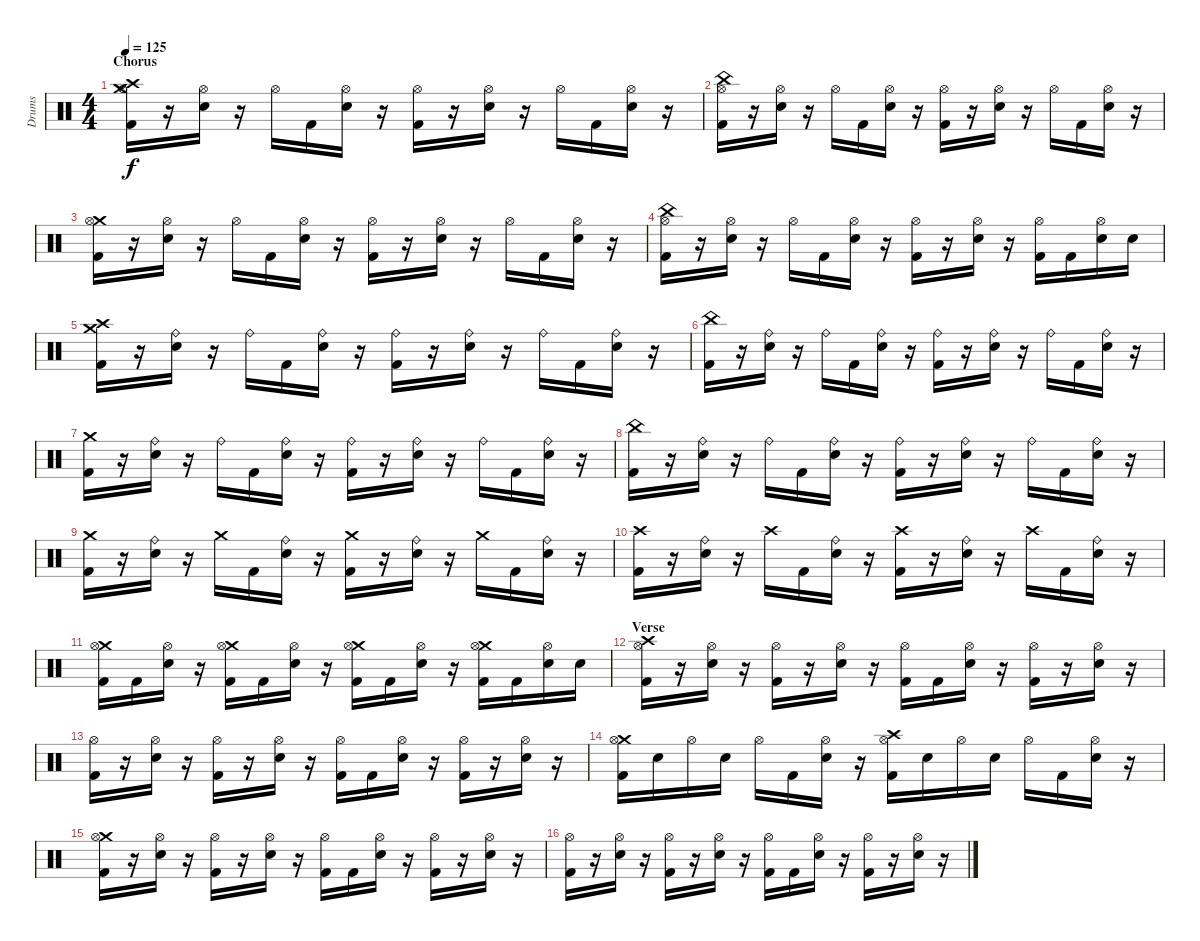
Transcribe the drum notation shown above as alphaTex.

\track ("Drums" "Drums") {instrument percussion}
\staff {score}
\articulation defaults
\ts (4 4)
\section ("" "Chorus")
\tempo 125
\clef neutral
\ks c
("Crash high (hit)" "Crash medium (hit)" "Hi-Hat (open)" "Kick (hit) 2").16{dy f} r.16 ("Hi-Hat (open)" "Electric Snare (hit)").16 r.16 "Hi-Hat (open)".16 "Kick (hit) 2".16 ("Hi-Hat (open)" "Electric Snare (hit)").16 r.16 ("Hi-Hat (open)" "Kick (hit) 2").16 r.16 ("Hi-Hat (open)" "Electric Snare (hit)").16 r.16 "Hi-Hat (open)".16 "Kick (hit) 2".16 ("Hi-Hat (open)" "Electric Snare (hit)").16 r.16 |
("China (hit)" "Hi-Hat (open)" "Kick (hit) 2").16 r.16 ("Hi-Hat (open)" "Electric Snare (hit)").16 r.16 "Hi-Hat (open)".16 "Kick (hit) 2".16 ("Hi-Hat (open)" "Electric Snare (hit)").16 r.16 ("Hi-Hat (open)" "Kick (hit) 2").16 r.16 ("Hi-Hat (open)" "Electric Snare (hit)").16 r.16 "Hi-Hat (open)".16 "Kick (hit) 2".16 ("Hi-Hat (open)" "Electric Snare (hit)").16 r.16 |
("Crash medium (hit)" "Hi-Hat (open)" "Kick (hit) 2").16 r.16 ("Hi-Hat (open)" "Electric Snare (hit)").16 r.16 "Hi-Hat (open)".16 "Kick (hit) 2".16 ("Hi-Hat (open)" "Electric Snare (hit)").16 r.16 ("Hi-Hat (open)" "Kick (hit) 2").16 r.16 ("Hi-Hat (open)" "Electric Snare (hit)").16 r.16 "Hi-Hat (open)".16 "Kick (hit) 2".16 ("Hi-Hat (open)" "Electric Snare (hit)").16 r.16 |
("China (hit)" "Hi-Hat (open)" "Kick (hit) 2").16 r.16 ("Hi-Hat (open)" "Electric Snare (hit)").16 r.16 "Hi-Hat (open)".16 "Kick (hit) 2".16 ("Hi-Hat (open)" "Electric Snare (hit)").16 r.16 ("Hi-Hat (open)" "Kick (hit) 2").16 r.16 ("Hi-Hat (open)" "Electric Snare (hit)").16 r.16 ("Hi-Hat (open)" "Kick (hit) 2").16 "Kick (hit) 2".16 ("Hi-Hat (open)" "Electric Snare (hit)").16 "Electric Snare (hit)".16 |
("Crash high (hit)" "Crash medium (hit)" "Kick (hit) 2").16 r.16 ("Ride (bell)" "Electric Snare (hit)").16 r.16 "Ride (bell)".16 "Kick (hit) 2".16 ("Ride (bell)" "Electric Snare (hit)").16 r.16 ("Ride (bell)" "Kick (hit) 2").16 r.16 ("Ride (bell)" "Electric Snare (hit)").16 r.16 "Ride (bell)".16 "Kick (hit) 2".16 ("Ride (bell)" "Electric Snare (hit)").16 r.16 |
("China (hit)" "Kick (hit) 2").16 r.16 ("Ride (bell)" "Electric Snare (hit)").16 r.16 "Ride (bell)".16 "Kick (hit) 2".16 ("Ride (bell)" "Electric Snare (hit)").16 r.16 ("Ride (bell)" "Kick (hit) 2").16 r.16 ("Ride (bell)" "Electric Snare (hit)").16 r.16 "Ride (bell)".16 "Kick (hit) 2".16 ("Ride (bell)" "Electric Snare (hit)").16 r.16 |
("Crash medium (hit)" "Kick (hit) 2").16 r.16 ("Ride (bell)" "Electric Snare (hit)").16 r.16 "Ride (bell)".16 "Kick (hit) 2".16 ("Ride (bell)" "Electric Snare (hit)").16 r.16 ("Ride (bell)" "Kick (hit) 2").16 r.16 ("Ride (bell)" "Electric Snare (hit)").16 r.16 "Ride (bell)".16 "Kick (hit) 2".16 ("Ride (bell)" "Electric Snare (hit)").16 r.16 |
("China (hit)" "Kick (hit) 2").16 r.16 ("Ride (bell)" "Electric Snare (hit)").16 r.16 "Ride (bell)".16 "Kick (hit) 2".16 ("Ride (bell)" "Electric Snare (hit)").16 r.16 ("Ride (bell)" "Kick (hit) 2").16 r.16 ("Ride (bell)" "Electric Snare (hit)").16 r.16 "Ride (bell)".16 "Kick (hit) 2".16 ("Ride (bell)" "Electric Snare (hit)").16 r.16 |
("Crash medium (hit)" "Kick (hit) 2").16 r.16 ("Ride (bell)" "Electric Snare (hit)").16 r.16 "Crash medium (hit)".16 "Kick (hit) 2".16 ("Ride (bell)" "Electric Snare (hit)").16 r.16 ("Crash medium (hit)" "Kick (hit) 2").16 r.16 ("Ride (bell)" "Electric Snare (hit)").16 r.16 "Crash medium (hit)".16 "Kick (hit) 2".16 ("Ride (bell)" "Electric Snare (hit)").16 r.16 |
("Crash high (hit)" "Kick (hit) 2").16 r.16 ("Ride (bell)" "Electric Snare (hit)").16 r.16 "Crash high (hit)".16 "Kick (hit) 2".16 ("Ride (bell)" "Electric Snare (hit)").16 r.16 ("Crash high (hit)" "Kick (hit) 2").16 r.16 ("Ride (bell)" "Electric Snare (hit)").16 r.16 "Crash high (hit)".16 "Kick (hit) 2".16 ("Ride (bell)" "Electric Snare (hit)").16 r.16 |
("Crash medium (hit)" "Hi-Hat (open)" "Kick (hit) 2").16 "Kick (hit) 2".16 ("Hi-Hat (open)" "Electric Snare (hit)").16 r.16 ("Crash medium (hit)" "Hi-Hat (open)" "Kick (hit) 2").16 "Kick (hit) 2".16 ("Hi-Hat (open)" "Electric Snare (hit)").16 r.16 ("Crash medium (hit)" "Hi-Hat (open)" "Kick (hit) 2").16 "Kick (hit) 2".16 ("Hi-Hat (open)" "Electric Snare (hit)").16 r.16 ("Crash medium (hit)" "Hi-Hat (open)" "Kick (hit) 2").16 "Kick (hit) 2".16 ("Hi-Hat (open)" "Electric Snare (hit)").16 "Electric Snare (hit)".16 |
\section ("" "Verse")
("Crash high (hit)" "Hi-Hat (open)" "Kick (hit) 2").16 r.16 ("Hi-Hat (open)" "Electric Snare (hit)").16 r.16 ("Hi-Hat (open)" "Kick (hit) 2").16 r.16 ("Hi-Hat (open)" "Electric Snare (hit)").16 r.16 ("Hi-Hat (open)" "Kick (hit) 2").16 "Kick (hit) 2".16 ("Hi-Hat (open)" "Electric Snare (hit)").16 r.16 ("Hi-Hat (open)" "Kick (hit) 2").16 r.16 ("Hi-Hat (open)" "Electric Snare (hit)").16 r.16 |
("Hi-Hat (open)" "Kick (hit) 2").16 r.16 ("Hi-Hat (open)" "Electric Snare (hit)").16 r.16 ("Hi-Hat (open)" "Kick (hit) 2").16 r.16 ("Hi-Hat (open)" "Electric Snare (hit)").16 r.16 ("Hi-Hat (open)" "Kick (hit) 2").16 "Kick (hit) 2".16 ("Hi-Hat (open)" "Electric Snare (hit)").16 r.16 ("Hi-Hat (open)" "Kick (hit) 2").16 r.16 ("Hi-Hat (open)" "Electric Snare (hit)").16 r.16 |
("Crash medium (hit)" "Hi-Hat (open)" "Kick (hit) 2").16 "Electric Snare (hit)".16 "Hi-Hat (open)".16 "Electric Snare (hit)".16 "Hi-Hat (open)".16 "Kick (hit) 2".16 ("Hi-Hat (open)" "Electric Snare (hit)").16 r.16 ("Crash high (hit)" "Hi-Hat (open)" "Kick (hit) 2").16 "Electric Snare (hit)".16 "Hi-Hat (open)".16 "Electric Snare (hit)".16 "Hi-Hat (open)".16 "Kick (hit) 2".16 ("Hi-Hat (open)" "Electric Snare (hit)").16 r.16 |
("Crash medium (hit)" "Hi-Hat (open)" "Kick (hit) 2").16 r.16 ("Hi-Hat (open)" "Electric Snare (hit)").16 r.16 ("Hi-Hat (open)" "Kick (hit) 2").16 r.16 ("Hi-Hat (open)" "Electric Snare (hit)").16 r.16 ("Hi-Hat (open)" "Kick (hit) 2").16 "Kick (hit) 2".16 ("Hi-Hat (open)" "Electric Snare (hit)").16 r.16 ("Hi-Hat (open)" "Kick (hit) 2").16 r.16 ("Hi-Hat (open)" "Electric Snare (hit)").16 r.16 |
("Hi-Hat (open)" "Kick (hit) 2").16 r.16 ("Hi-Hat (open)" "Electric Snare (hit)").16 r.16 ("Hi-Hat (open)" "Kick (hit) 2").16 r.16 ("Hi-Hat (open)" "Electric Snare (hit)").16 r.16 ("Hi-Hat (open)" "Kick (hit) 2").16 "Kick (hit) 2".16 ("Hi-Hat (open)" "Electric Snare (hit)").16 r.16 ("Hi-Hat (open)" "Kick (hit) 2").16 r.16 ("Hi-Hat (open)" "Electric Snare (hit)").16 r.16
